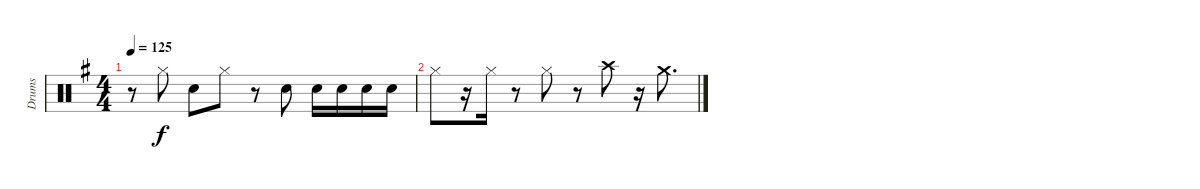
\track ("Drums" "Drums") {instrument percussion}
\staff {score}
\articulation defaults
\ts (4 4)
\tempo 125
\clef neutral
\ks g
r.8{dy f} "Hi-Hat (closed)".8 "Snare (hit) 2".8 "Hi-Hat (closed)".8 r.8 "Snare (hit) 2".8 "Snare (hit) 2".16 "Snare (hit) 2".16 "Snare (hit) 2".16 "Snare (hit) 2".16 |
"Hi-Hat (closed)".8 r.16 "Hi-Hat (closed)".16 r.8 "Hi-Hat (closed)".8 r.8 "Crash high (hit)".8 r.16 "Crash medium (hit)".8{d}
